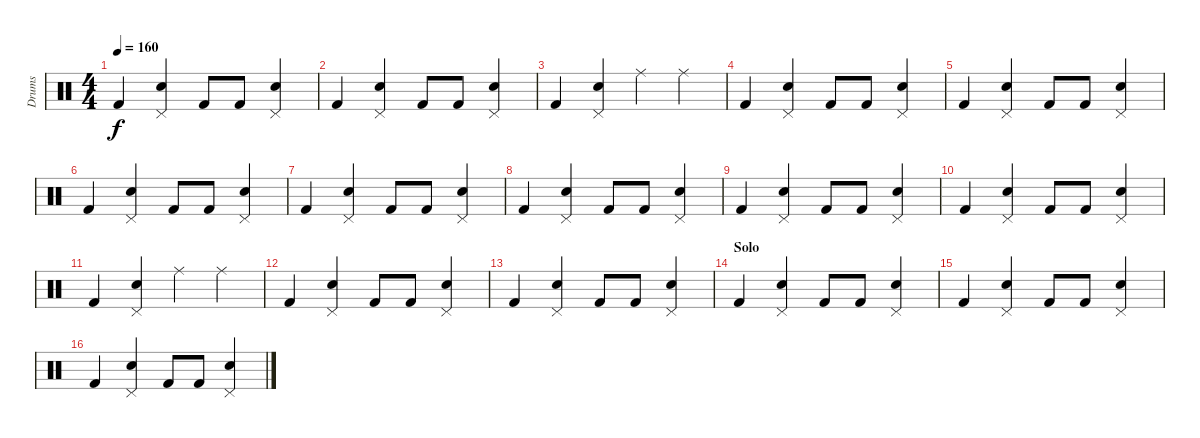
\track ("Drums" "Drums") {instrument percussion}
\staff {score}
\articulation defaults
\ts (4 4)
\tempo 160
\clef neutral
\ks c "Kick (hit) 2".4{dy f}
("Pedal Hi-Hat (hit)" "Electric Snare (hit)").4 "Kick (hit) 2".8 "Kick (hit) 2".8 ("Pedal Hi-Hat (hit)" "Electric Snare (hit)").4 |
"Kick (hit) 2".4 ("Pedal Hi-Hat (hit)" "Electric Snare (hit)").4 "Kick (hit) 2".8 "Kick (hit) 2".8 ("Pedal Hi-Hat (hit)" "Electric Snare (hit)").4 |
"Kick (hit) 2".4 ("Pedal Hi-Hat (hit)" "Electric Snare (hit)").4 "Ride (middle)".4 "Ride (middle)".4 |
"Kick (hit) 2".4 ("Pedal Hi-Hat (hit)" "Electric Snare (hit)").4 "Kick (hit) 2".8 "Kick (hit) 2".8 ("Pedal Hi-Hat (hit)" "Electric Snare (hit)").4 |
"Kick (hit) 2".4 ("Pedal Hi-Hat (hit)" "Electric Snare (hit)").4 "Kick (hit) 2".8 "Kick (hit) 2".8 ("Pedal Hi-Hat (hit)" "Electric Snare (hit)").4 |
"Kick (hit) 2".4 ("Pedal Hi-Hat (hit)" "Electric Snare (hit)").4 "Kick (hit) 2".8 "Kick (hit) 2".8 ("Pedal Hi-Hat (hit)" "Electric Snare (hit)").4 |
"Kick (hit) 2".4 ("Pedal Hi-Hat (hit)" "Electric Snare (hit)").4 "Kick (hit) 2".8 "Kick (hit) 2".8 ("Pedal Hi-Hat (hit)" "Electric Snare (hit)").4 |
"Kick (hit) 2".4 ("Pedal Hi-Hat (hit)" "Electric Snare (hit)").4 "Kick (hit) 2".8 "Kick (hit) 2".8 ("Pedal Hi-Hat (hit)" "Electric Snare (hit)").4 |
"Kick (hit) 2".4 ("Pedal Hi-Hat (hit)" "Electric Snare (hit)").4 "Kick (hit) 2".8 "Kick (hit) 2".8 ("Pedal Hi-Hat (hit)" "Electric Snare (hit)").4 |
"Kick (hit) 2".4 ("Pedal Hi-Hat (hit)" "Electric Snare (hit)").4 "Kick (hit) 2".8 "Kick (hit) 2".8 ("Pedal Hi-Hat (hit)" "Electric Snare (hit)").4 |
"Kick (hit) 2".4 ("Pedal Hi-Hat (hit)" "Electric Snare (hit)").4 "Ride (middle)".4 "Ride (middle)".4 |
"Kick (hit) 2".4 ("Pedal Hi-Hat (hit)" "Electric Snare (hit)").4 "Kick (hit) 2".8 "Kick (hit) 2".8 ("Pedal Hi-Hat (hit)" "Electric Snare (hit)").4 |
"Kick (hit) 2".4 ("Pedal Hi-Hat (hit)" "Electric Snare (hit)").4 "Kick (hit) 2".8 "Kick (hit) 2".8 ("Pedal Hi-Hat (hit)" "Electric Snare (hit)").4 |
\section ("" "Solo")
"Kick (hit) 2".4 ("Pedal Hi-Hat (hit)" "Electric Snare (hit)").4 "Kick (hit) 2".8 "Kick (hit) 2".8 ("Pedal Hi-Hat (hit)" "Electric Snare (hit)").4 |
"Kick (hit) 2".4 ("Pedal Hi-Hat (hit)" "Electric Snare (hit)").4 "Kick (hit) 2".8 "Kick (hit) 2".8 ("Pedal Hi-Hat (hit)" "Electric Snare (hit)").4 |
"Kick (hit) 2".4 ("Pedal Hi-Hat (hit)" "Electric Snare (hit)").4 "Kick (hit) 2".8 "Kick (hit) 2".8 ("Pedal Hi-Hat (hit)" "Electric Snare (hit)").4
